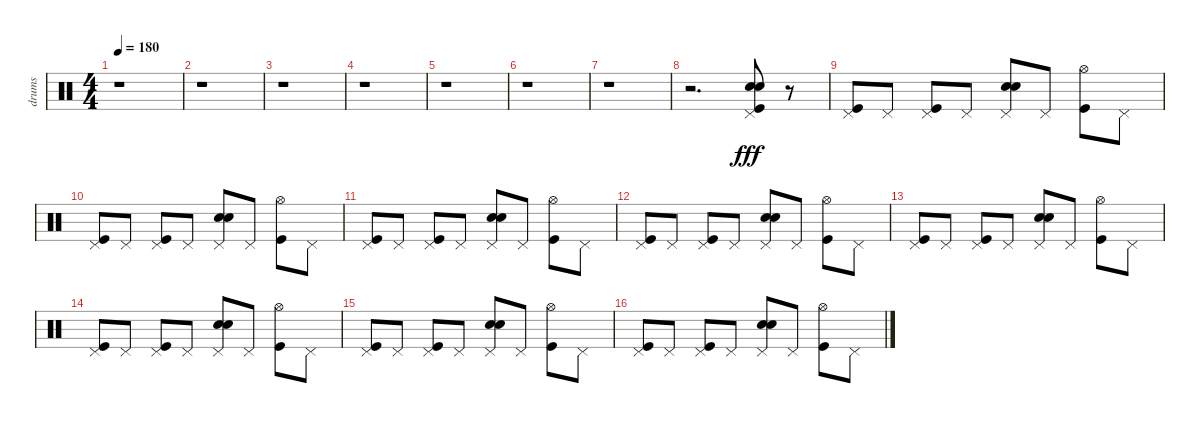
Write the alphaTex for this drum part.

\track ("drums" "drums") {instrument percussion}
\staff {score}
\articulation defaults
\ts (4 4)
\tempo 180
\clef neutral
\ks c
r.1{dy fff} |
r.1 |
r.1 |
r.1 |
r.1 |
r.1 |
r.1 |
r.2{d} ("Pedal Hi-Hat (hit)" "Kick (hit)" "Electric Snare (hit)" "Snare (hit) 2").8 r.8 |
("Kick (hit)" "Pedal Hi-Hat (hit)").8 "Pedal Hi-Hat (hit)".8 ("Pedal Hi-Hat (hit)" "Kick (hit)").8 "Pedal Hi-Hat (hit)".8 ("Pedal Hi-Hat (hit)" "Electric Snare (hit)" "Snare (hit) 2").8 "Pedal Hi-Hat (hit)".8 ("Hi-Hat (open)" "Kick (hit)").8 "Pedal Hi-Hat (hit)".8 |
("Kick (hit)" "Pedal Hi-Hat (hit)").8 "Pedal Hi-Hat (hit)".8 ("Kick (hit)" "Pedal Hi-Hat (hit)").8 "Pedal Hi-Hat (hit)".8 ("Snare (hit) 2" "Electric Snare (hit)" "Pedal Hi-Hat (hit)").8 "Pedal Hi-Hat (hit)".8 ("Hi-Hat (open)" "Kick (hit)").8 "Pedal Hi-Hat (hit)".8 |
("Pedal Hi-Hat (hit)" "Kick (hit)").8 "Pedal Hi-Hat (hit)".8 ("Pedal Hi-Hat (hit)" "Kick (hit)").8 "Pedal Hi-Hat (hit)".8 ("Pedal Hi-Hat (hit)" "Electric Snare (hit)" "Snare (hit) 2").8 "Pedal Hi-Hat (hit)".8 ("Hi-Hat (open)" "Kick (hit)").8 "Pedal Hi-Hat (hit)".8 |
("Kick (hit)" "Pedal Hi-Hat (hit)").8 "Pedal Hi-Hat (hit)".8 ("Kick (hit)" "Pedal Hi-Hat (hit)").8 "Pedal Hi-Hat (hit)".8 ("Snare (hit) 2" "Electric Snare (hit)" "Pedal Hi-Hat (hit)").8 "Pedal Hi-Hat (hit)".8 ("Hi-Hat (open)" "Kick (hit)").8 "Pedal Hi-Hat (hit)".8 |
("Pedal Hi-Hat (hit)" "Kick (hit)").8 "Pedal Hi-Hat (hit)".8 ("Pedal Hi-Hat (hit)" "Kick (hit)").8 "Pedal Hi-Hat (hit)".8 ("Pedal Hi-Hat (hit)" "Electric Snare (hit)" "Snare (hit) 2").8 "Pedal Hi-Hat (hit)".8 ("Hi-Hat (open)" "Kick (hit)").8 "Pedal Hi-Hat (hit)".8 |
("Kick (hit)" "Pedal Hi-Hat (hit)").8 "Pedal Hi-Hat (hit)".8 ("Kick (hit)" "Pedal Hi-Hat (hit)").8 "Pedal Hi-Hat (hit)".8 ("Snare (hit) 2" "Electric Snare (hit)" "Pedal Hi-Hat (hit)").8 "Pedal Hi-Hat (hit)".8 ("Hi-Hat (open)" "Kick (hit)").8 "Pedal Hi-Hat (hit)".8 |
("Pedal Hi-Hat (hit)" "Kick (hit)").8 "Pedal Hi-Hat (hit)".8 ("Pedal Hi-Hat (hit)" "Kick (hit)").8 "Pedal Hi-Hat (hit)".8 ("Pedal Hi-Hat (hit)" "Electric Snare (hit)" "Snare (hit) 2").8 "Pedal Hi-Hat (hit)".8 ("Hi-Hat (open)" "Kick (hit)").8 "Pedal Hi-Hat (hit)".8 |
("Kick (hit)" "Pedal Hi-Hat (hit)").8 "Pedal Hi-Hat (hit)".8 ("Kick (hit)" "Pedal Hi-Hat (hit)").8 "Pedal Hi-Hat (hit)".8 ("Snare (hit) 2" "Electric Snare (hit)" "Pedal Hi-Hat (hit)").8 "Pedal Hi-Hat (hit)".8 ("Hi-Hat (open)" "Kick (hit)").8 "Pedal Hi-Hat (hit)".8
